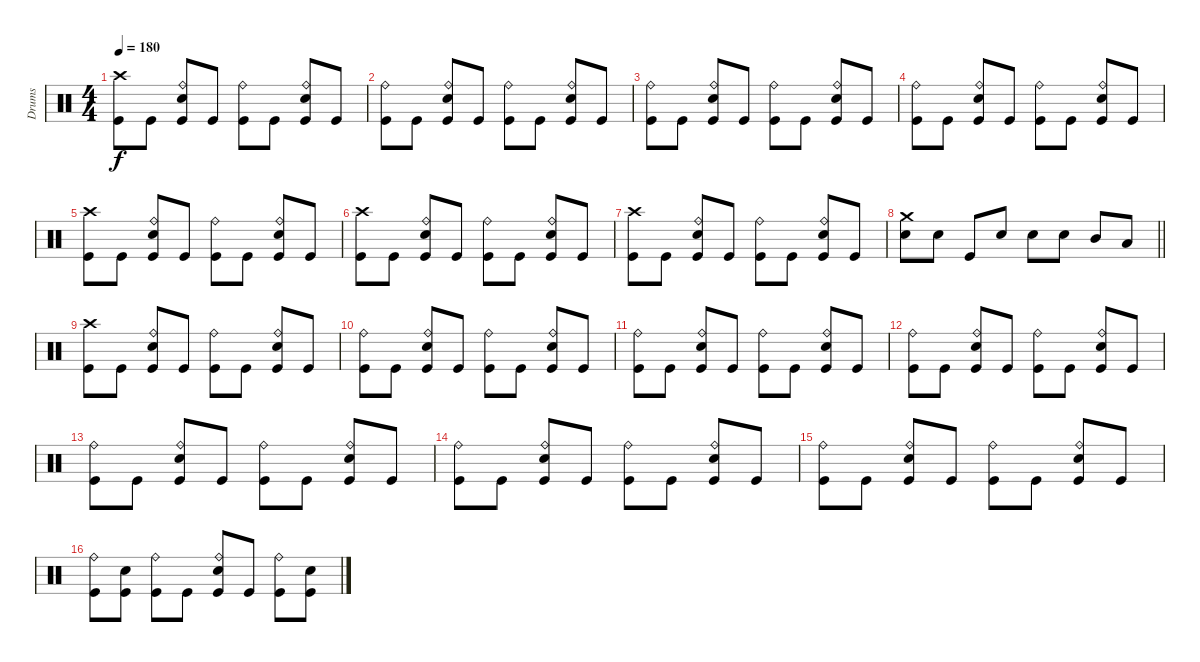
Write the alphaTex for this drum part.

\track ("Drums" "Drums") {instrument percussion}
\staff {score}
\articulation defaults
\ts (4 4)
\tempo 180
\clef neutral
\ks c
("Crash high (hit)" "Kick (hit)").8{dy f} "Kick (hit)".8 ("Ride (bell)" "Snare (hit) 2" "Kick (hit)").8 "Kick (hit)".8 ("Ride (bell)" "Kick (hit)").8 "Kick (hit)".8 ("Ride (bell)" "Snare (hit) 2" "Kick (hit)").8 "Kick (hit)".8 |
("Ride (bell)" "Kick (hit)").8 "Kick (hit)".8 ("Ride (bell)" "Snare (hit) 2" "Kick (hit)").8 "Kick (hit)".8 ("Ride (bell)" "Kick (hit)").8 "Kick (hit)".8 ("Ride (bell)" "Snare (hit) 2" "Kick (hit)").8 "Kick (hit)".8 |
("Ride (bell)" "Kick (hit)").8 "Kick (hit)".8 ("Ride (bell)" "Snare (hit) 2" "Kick (hit)").8 "Kick (hit)".8 ("Ride (bell)" "Kick (hit)").8 "Kick (hit)".8 ("Ride (bell)" "Snare (hit) 2" "Kick (hit)").8 "Kick (hit)".8 |
("Ride (bell)" "Kick (hit)").8 "Kick (hit)".8 ("Ride (bell)" "Snare (hit) 2" "Kick (hit)").8 "Kick (hit)".8 ("Ride (bell)" "Kick (hit)").8 "Kick (hit)".8 ("Ride (bell)" "Snare (hit) 2" "Kick (hit)").8 "Kick (hit)".8 |
("Crash high (hit)" "Kick (hit)").8 "Kick (hit)".8 ("Ride (bell)" "Snare (hit) 2" "Kick (hit)").8 "Kick (hit)".8 ("Ride (bell)" "Kick (hit)").8 "Kick (hit)".8 ("Ride (bell)" "Snare (hit) 2" "Kick (hit)").8 "Kick (hit)".8 |
("Crash high (hit)" "Kick (hit)").8 "Kick (hit)".8 ("Ride (bell)" "Snare (hit) 2" "Kick (hit)").8 "Kick (hit)".8 ("Ride (bell)" "Kick (hit)").8 "Kick (hit)".8 ("Ride (bell)" "Snare (hit) 2" "Kick (hit)").8 "Kick (hit)".8 |
("Crash high (hit)" "Kick (hit)").8 "Kick (hit)".8 ("Ride (bell)" "Snare (hit) 2" "Kick (hit)").8 "Kick (hit)".8 ("Ride (bell)" "Kick (hit)").8 "Kick (hit)".8 ("Ride (bell)" "Snare (hit) 2" "Kick (hit)").8 "Kick (hit)".8 |
\barLineRight lightlight
("Crash medium (hit)" "Snare (hit) 2").8 "Snare (hit) 2".8 "Kick (hit)".8 "Snare (hit) 2".8 "Snare (hit) 2".8 "Snare (hit) 2".8 "Mid Tom (hit)".8 "Low Tom (hit)".8 |
("Crash high (hit)" "Kick (hit)").8 "Kick (hit)".8 ("Ride (bell)" "Snare (hit) 2" "Kick (hit)").8 "Kick (hit)".8 ("Ride (bell)" "Kick (hit)").8 "Kick (hit)".8 ("Ride (bell)" "Snare (hit) 2" "Kick (hit)").8 "Kick (hit)".8 |
("Ride (bell)" "Kick (hit)").8 "Kick (hit)".8 ("Ride (bell)" "Snare (hit) 2" "Kick (hit)").8 "Kick (hit)".8 ("Ride (bell)" "Kick (hit)").8 "Kick (hit)".8 ("Ride (bell)" "Snare (hit) 2" "Kick (hit)").8 "Kick (hit)".8 |
("Ride (bell)" "Kick (hit)").8 "Kick (hit)".8 ("Ride (bell)" "Snare (hit) 2" "Kick (hit)").8 "Kick (hit)".8 ("Ride (bell)" "Kick (hit)").8 "Kick (hit)".8 ("Ride (bell)" "Snare (hit) 2" "Kick (hit)").8 "Kick (hit)".8 |
("Ride (bell)" "Kick (hit)").8 "Kick (hit)".8 ("Ride (bell)" "Snare (hit) 2" "Kick (hit)").8 "Kick (hit)".8 ("Ride (bell)" "Kick (hit)").8 "Kick (hit)".8 ("Ride (bell)" "Snare (hit) 2" "Kick (hit)").8 "Kick (hit)".8 |
("Ride (bell)" "Kick (hit)").8 "Kick (hit)".8 ("Ride (bell)" "Snare (hit) 2" "Kick (hit)").8 "Kick (hit)".8 ("Ride (bell)" "Kick (hit)").8 "Kick (hit)".8 ("Ride (bell)" "Snare (hit) 2" "Kick (hit)").8 "Kick (hit)".8 |
("Ride (bell)" "Kick (hit)").8 "Kick (hit)".8 ("Ride (bell)" "Snare (hit) 2" "Kick (hit)").8 "Kick (hit)".8 ("Ride (bell)" "Kick (hit)").8 "Kick (hit)".8 ("Ride (bell)" "Snare (hit) 2" "Kick (hit)").8 "Kick (hit)".8 |
("Ride (bell)" "Kick (hit)").8 "Kick (hit)".8 ("Ride (bell)" "Snare (hit) 2" "Kick (hit)").8 "Kick (hit)".8 ("Ride (bell)" "Kick (hit)").8 "Kick (hit)".8 ("Ride (bell)" "Snare (hit) 2" "Kick (hit)").8 "Kick (hit)".8 |
("Ride (bell)" "Kick (hit)").8 ("Snare (hit) 2" "Kick (hit)").8 ("Ride (bell)" "Kick (hit)").8 "Kick (hit)".8 ("Ride (bell)" "Snare (hit) 2" "Kick (hit)").8 "Kick (hit)".8 ("Ride (bell)" "Kick (hit)").8 ("Snare (hit) 2" "Kick (hit)").8
